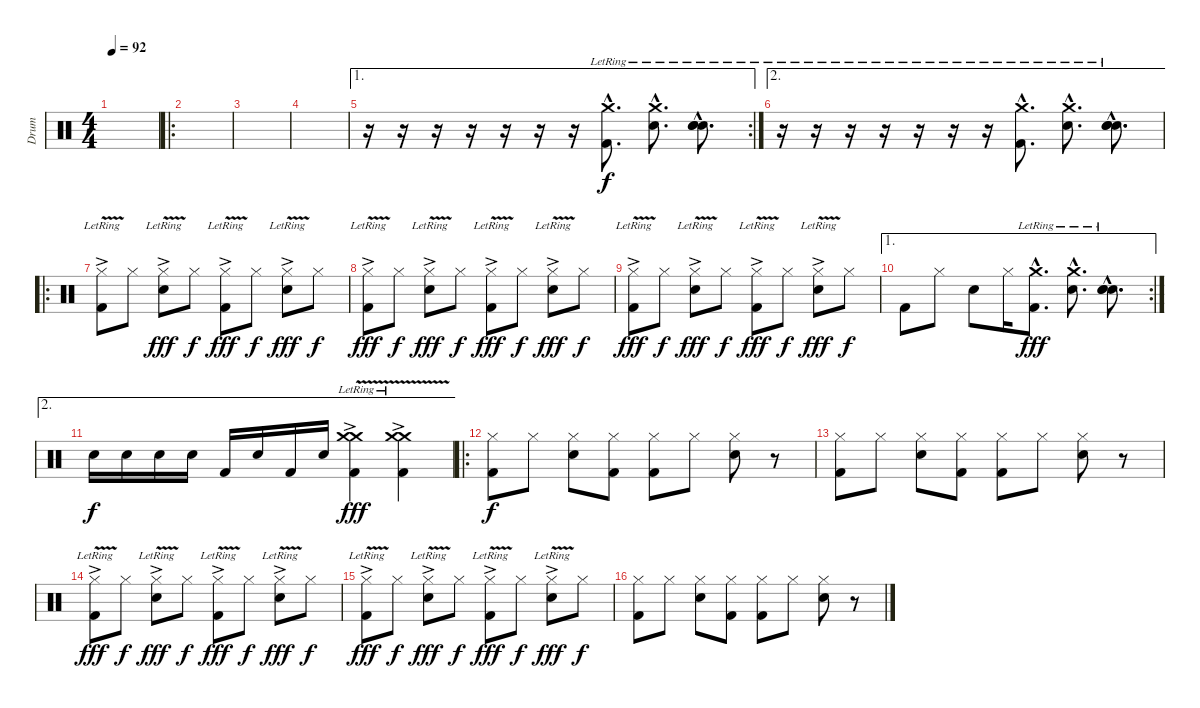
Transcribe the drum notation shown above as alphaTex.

\track ("Drum" "Drum") {instrument percussion}
\staff {score}
\articulation defaults
\ts (4 4)
\tempo 92
\clef neutral
\ks c
|
\ro
|
|
|
\ae 1
\rc 2
r.16 r.16 r.16 r.16 r.16 r.16 r.16 ("Crash medium (hit)"{hac lr} "Kick (hit) 2"{hac lr}).8{d} ("Crash medium (hit)"{hac lr} "Electric Snare (hit)"{hac lr}).8{d} ("Electric Snare (hit)"{nh hac lr} "Electric Snare (hit)"{nh hac lr} "Electric Snare (hit)"{nh hac lr}).8{d} |
\ae 2
r.16 r.16 r.16 r.16 r.16 r.16 r.16 ("Crash medium (hit)"{hac lr} "Kick (hit) 2"{hac lr}).8{d} ("Crash medium (hit)"{hac lr} "Electric Snare (hit)"{hac lr}).8{d} ("Electric Snare (hit)"{nh hac lr} "Electric Snare (hit)"{nh hac lr} "Electric Snare (hit)"{nh hac lr}).8{d} |
\ro
("Hi-Hat (closed)" "Kick (hit) 2"{v ac lr}).8 "Hi-Hat (closed)".8{dy f} ("Hi-Hat (closed)" "Electric Snare (hit)"{v ac lr}).8{dy fff} "Hi-Hat (closed)".8{dy f} ("Hi-Hat (closed)" "Kick (hit) 2"{v ac lr}).8{dy fff} "Hi-Hat (closed)".8{dy f} ("Hi-Hat (closed)" "Electric Snare (hit)"{v ac lr}).8{dy fff} "Hi-Hat (closed)".8{dy f} |
("Hi-Hat (closed)" "Kick (hit) 2"{v ac lr}).8{dy fff} "Hi-Hat (closed)".8{dy f} ("Hi-Hat (closed)" "Electric Snare (hit)"{v ac lr}).8{dy fff} "Hi-Hat (closed)".8{dy f} ("Hi-Hat (closed)" "Kick (hit) 2"{v ac lr}).8{dy fff} "Hi-Hat (closed)".8{dy f} ("Hi-Hat (closed)" "Electric Snare (hit)"{v ac lr}).8{dy fff} "Hi-Hat (closed)".8{dy f} |
("Hi-Hat (closed)" "Kick (hit) 2"{v ac lr}).8{dy fff} "Hi-Hat (closed)".8{dy f} ("Hi-Hat (closed)" "Electric Snare (hit)"{v ac lr}).8{dy fff} "Hi-Hat (closed)".8{dy f} ("Hi-Hat (closed)" "Kick (hit) 2"{v ac lr}).8{dy fff} "Hi-Hat (closed)".8{dy f} ("Hi-Hat (closed)" "Electric Snare (hit)"{v ac lr}).8{dy fff} "Hi-Hat (closed)".8{dy f} |
\ae 1
\rc 2 "Kick (hit) 2".8 "Hi-Hat (closed)".8 "Electric Snare (hit)".8 "Hi-Hat (closed)".16
("Crash medium (hit)"{hac lr} "Kick (hit) 2"{hac lr}).8{d dy fff} ("Crash medium (hit)"{hac lr} "Electric Snare (hit)"{hac lr}).8{d} ("Electric Snare (hit)"{nh hac lr} "Electric Snare (hit)"{nh hac lr} "Electric Snare (hit)"{nh hac lr}).8{d} |
\ae 2 "Electric Snare (hit)".16{dy f} "Electric Snare (hit)".16 "Electric Snare (hit)".16 "Electric Snare (hit)".16 "Kick (hit) 2".16 "Electric Snare (hit)".16 "Kick (hit) 2".16 "Electric Snare (hit)".16
("Crash medium (hit)"{v ac lr} "Crash medium (hit)"{ac lr} "Kick (hit) 2").4{dy fff} ("Crash medium (hit)"{v ac lr} "Crash medium (hit)"{ac lr} "Kick (hit) 2").4 |
\ro
("Hi-Hat (closed)" "Kick (hit) 2").8{dy f} "Hi-Hat (closed)".8 ("Hi-Hat (closed)" "Electric Snare (hit)").8 ("Hi-Hat (closed)" "Kick (hit) 2").8 ("Hi-Hat (closed)" "Kick (hit) 2").8 "Hi-Hat (closed)".8 ("Hi-Hat (closed)" "Electric Snare (hit)").8 r.8 |
("Hi-Hat (closed)" "Kick (hit) 2").8 "Hi-Hat (closed)".8 ("Hi-Hat (closed)" "Electric Snare (hit)").8 ("Hi-Hat (closed)" "Kick (hit) 2").8 ("Hi-Hat (closed)" "Kick (hit) 2").8 "Hi-Hat (closed)".8 ("Hi-Hat (closed)" "Electric Snare (hit)").8 r.8 |
("Hi-Hat (closed)" "Kick (hit) 2"{v ac lr}).8{dy fff} "Hi-Hat (closed)".8{dy f} ("Hi-Hat (closed)" "Electric Snare (hit)"{v ac lr}).8{dy fff} "Hi-Hat (closed)".8{dy f} ("Hi-Hat (closed)" "Kick (hit) 2"{v ac lr}).8{dy fff} "Hi-Hat (closed)".8{dy f} ("Hi-Hat (closed)" "Electric Snare (hit)"{v ac lr}).8{dy fff} "Hi-Hat (closed)".8{dy f} |
("Hi-Hat (closed)" "Kick (hit) 2"{v ac lr}).8{dy fff} "Hi-Hat (closed)".8{dy f} ("Hi-Hat (closed)" "Electric Snare (hit)"{v ac lr}).8{dy fff} "Hi-Hat (closed)".8{dy f} ("Hi-Hat (closed)" "Kick (hit) 2"{v ac lr}).8{dy fff} "Hi-Hat (closed)".8{dy f} ("Hi-Hat (closed)" "Electric Snare (hit)"{v ac lr}).8{dy fff} "Hi-Hat (closed)".8{dy f} |
("Hi-Hat (closed)" "Kick (hit) 2").8 "Hi-Hat (closed)".8 ("Hi-Hat (closed)" "Electric Snare (hit)").8 ("Hi-Hat (closed)" "Kick (hit) 2").8 ("Hi-Hat (closed)" "Kick (hit) 2").8 "Hi-Hat (closed)".8 ("Hi-Hat (closed)" "Electric Snare (hit)").8 r.8
